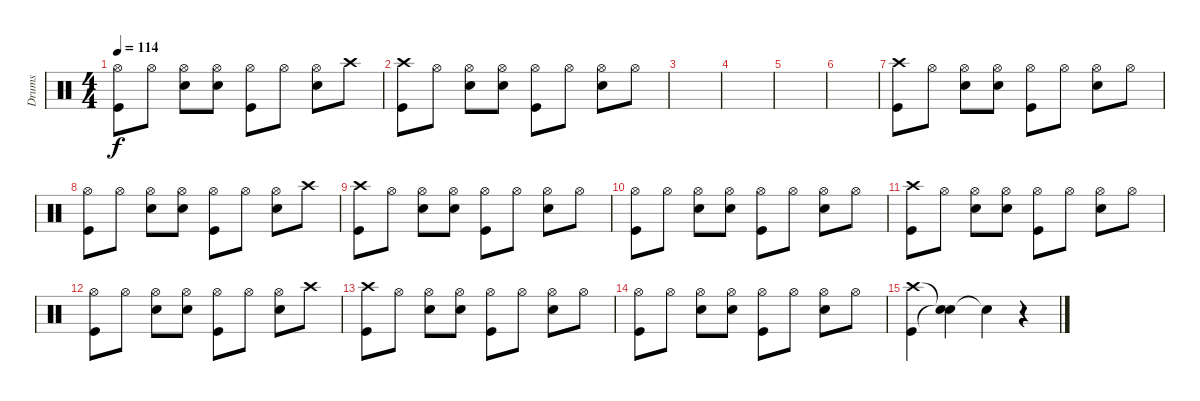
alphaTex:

\track ("Drums" "Drums") {instrument percussion}
\staff {score}
\articulation defaults
\ts (4 4)
\tempo 114
\clef neutral
\ks c
("Hi-Hat (open)" "Kick (hit)").8{dy f} "Hi-Hat (open)".8 ("Hi-Hat (open)" "Snare (hit) 2").8 ("Hi-Hat (open)" "Snare (hit) 2").8 ("Hi-Hat (open)" "Kick (hit)").8 "Hi-Hat (open)".8 ("Hi-Hat (open)" "Snare (hit) 2").8 "Crash high (hit)".8 |
("Crash high (hit)" "Kick (hit)").8 "Hi-Hat (open)".8 ("Hi-Hat (open)" "Snare (hit) 2").8 ("Hi-Hat (open)" "Snare (hit) 2").8 ("Hi-Hat (open)" "Kick (hit)").8 "Hi-Hat (open)".8 ("Hi-Hat (open)" "Snare (hit) 2").8 "Hi-Hat (open)".8 |
|
|
|
|
("Crash high (hit)" "Kick (hit)").8 "Hi-Hat (open)".8 ("Hi-Hat (open)" "Snare (hit) 2").8 ("Hi-Hat (open)" "Snare (hit) 2").8 ("Hi-Hat (open)" "Kick (hit)").8 "Hi-Hat (open)".8 ("Hi-Hat (open)" "Snare (hit) 2").8 "Hi-Hat (open)".8 |
("Hi-Hat (open)" "Kick (hit)").8 "Hi-Hat (open)".8 ("Hi-Hat (open)" "Snare (hit) 2").8 ("Hi-Hat (open)" "Snare (hit) 2").8 ("Hi-Hat (open)" "Kick (hit)").8 "Hi-Hat (open)".8 ("Hi-Hat (open)" "Snare (hit) 2").8 "Crash high (hit)".8 |
("Crash high (hit)" "Kick (hit)").8 "Hi-Hat (open)".8 ("Hi-Hat (open)" "Snare (hit) 2").8 ("Hi-Hat (open)" "Snare (hit) 2").8 ("Hi-Hat (open)" "Kick (hit)").8 "Hi-Hat (open)".8 ("Hi-Hat (open)" "Snare (hit) 2").8 "Hi-Hat (open)".8 |
("Hi-Hat (open)" "Kick (hit)").8 "Hi-Hat (open)".8 ("Hi-Hat (open)" "Snare (hit) 2").8 ("Hi-Hat (open)" "Snare (hit) 2").8 ("Hi-Hat (open)" "Kick (hit)").8 "Hi-Hat (open)".8 ("Hi-Hat (open)" "Snare (hit) 2").8 "Hi-Hat (open)".8 |
("Crash high (hit)" "Kick (hit)").8 "Hi-Hat (open)".8 ("Hi-Hat (open)" "Snare (hit) 2").8 ("Hi-Hat (open)" "Snare (hit) 2").8 ("Hi-Hat (open)" "Kick (hit)").8 "Hi-Hat (open)".8 ("Hi-Hat (open)" "Snare (hit) 2").8 "Hi-Hat (open)".8 |
("Hi-Hat (open)" "Kick (hit)").8 "Hi-Hat (open)".8 ("Hi-Hat (open)" "Snare (hit) 2").8 ("Hi-Hat (open)" "Snare (hit) 2").8 ("Hi-Hat (open)" "Kick (hit)").8 "Hi-Hat (open)".8 ("Hi-Hat (open)" "Snare (hit) 2").8 "Crash high (hit)".8 |
("Crash high (hit)" "Kick (hit)").8 "Hi-Hat (open)".8 ("Hi-Hat (open)" "Snare (hit) 2").8 ("Hi-Hat (open)" "Snare (hit) 2").8 ("Hi-Hat (open)" "Kick (hit)").8 "Hi-Hat (open)".8 ("Hi-Hat (open)" "Snare (hit) 2").8 "Hi-Hat (open)".8 |
("Hi-Hat (open)" "Kick (hit)").8 "Hi-Hat (open)".8 ("Hi-Hat (open)" "Snare (hit) 2").8 ("Hi-Hat (open)" "Snare (hit) 2").8 ("Hi-Hat (open)" "Kick (hit)").8 "Hi-Hat (open)".8 ("Hi-Hat (open)" "Snare (hit) 2").8 "Hi-Hat (open)".8 |
("Crash high (hit)" "Kick (hit)").4 ("Snare (hit)"{t} "Snare (hit)"{t}).4 "Snare (hit)"{t}.4 r.4
